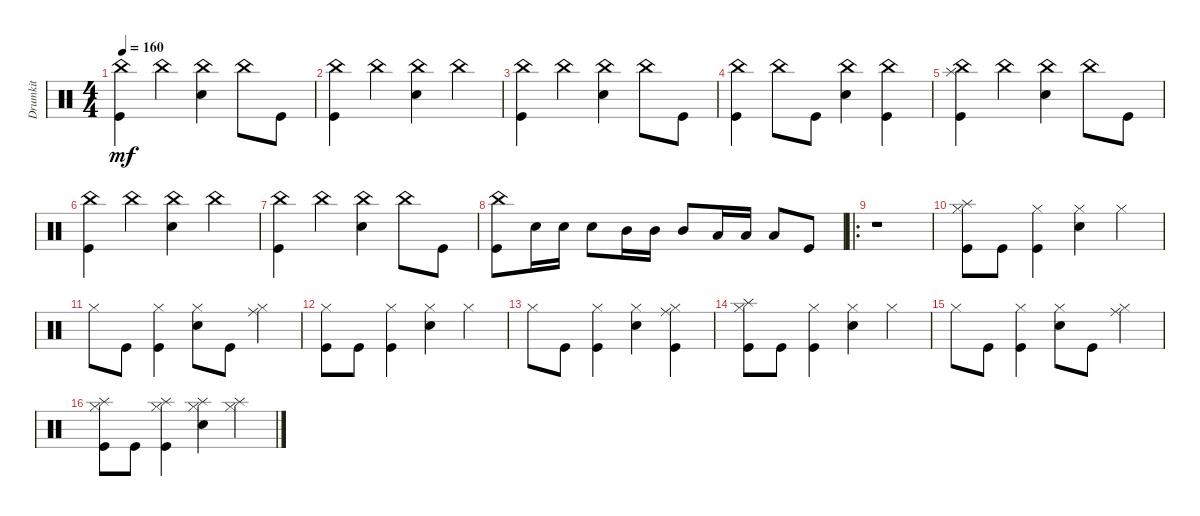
\track ("Drumkit" "Drumkit") {instrument percussion}
\staff {score}
\articulation defaults
\ts (4 4)
\tempo 160
\clef neutral
\ks c
("Kick (hit)" "China (hit)").4{dy mf} "China (hit)".4 ("China (hit)" "Snare (hit) 2").4 "China (hit)".8 "Kick (hit)".8 |
("China (hit)" "Kick (hit)").4 "China (hit)".4 ("China (hit)" "Snare (hit) 2").4 "China (hit)".4 |
("Kick (hit)" "China (hit)").4 "China (hit)".4 ("China (hit)" "Snare (hit) 2").4 "China (hit)".8 "Kick (hit)".8 |
("Kick (hit)" "China (hit)").4 "China (hit)".8 "Kick (hit)".8 ("Snare (hit) 2" "China (hit)").4 ("Kick (hit)" "China (hit)").4 |
("Kick (hit)" "China (hit)" "Splash (hit)").4 "China (hit)".4 ("China (hit)" "Snare (hit) 2").4 "China (hit)".8 "Kick (hit)".8 |
("China (hit)" "Kick (hit)").4 "China (hit)".4 ("China (hit)" "Snare (hit) 2").4 "China (hit)".4 |
("Kick (hit)" "China (hit)").4 "China (hit)".4 ("China (hit)" "Snare (hit) 2").4 "China (hit)".8 "Kick (hit)".8 |
("Kick (hit)" "China (hit)").8 "Snare (hit) 2".16 "Snare (hit) 2".16 "Snare (hit) 2".8 "Mid Tom (hit)".16 "Mid Tom (hit)".16 "Mid Tom (hit)".8 "Low Tom (hit)".16 "Low Tom (hit)".16 "Low Tom (hit)".8 "Kick (hit)".8 |
\ro
r.1 |
("Kick (hit)" "Hi-Hat (closed)" "Splash (hit)").8 "Kick (hit)".8 ("Kick (hit)" "Hi-Hat (closed)").4 ("Snare (hit) 2" "Hi-Hat (closed)").4 "Hi-Hat (closed)".4 |
"Hi-Hat (closed)".8 "Kick (hit)".8 ("Kick (hit)" "Hi-Hat (closed)").4 ("Snare (hit) 2" "Hi-Hat (closed)").8 "Kick (hit)".8 ("Hi-Hat (closed)" "Ride (middle)").4 |
("Kick (hit)" "Hi-Hat (closed)").8 "Kick (hit)".8 ("Kick (hit)" "Hi-Hat (closed)").4 ("Snare (hit) 2" "Hi-Hat (closed)").4 "Hi-Hat (closed)".4 |
"Hi-Hat (closed)".8 "Kick (hit)".8 ("Kick (hit)" "Hi-Hat (closed)").4 ("Snare (hit) 2" "Hi-Hat (closed)").4 ("Kick (hit)" "Ride (middle)" "Hi-Hat (closed)").4 |
("Kick (hit)" "Hi-Hat (closed)" "Splash (hit)").8 "Kick (hit)".8 ("Kick (hit)" "Hi-Hat (closed)").4 ("Snare (hit) 2" "Hi-Hat (closed)").4 "Hi-Hat (closed)".4 |
"Hi-Hat (closed)".8 "Kick (hit)".8 ("Kick (hit)" "Hi-Hat (closed)").4 ("Snare (hit) 2" "Hi-Hat (closed)").8 "Kick (hit)".8 ("Hi-Hat (closed)" "Ride (middle)").4 |
("Kick (hit)" "Hi-Hat (closed)" "Splash (hit)").8 "Kick (hit)".8 ("Kick (hit)" "Hi-Hat (closed)" "Splash (hit)").4 ("Snare (hit) 2" "Hi-Hat (closed)" "Splash (hit)").4 ("Hi-Hat (closed)" "Splash (hit)").4
